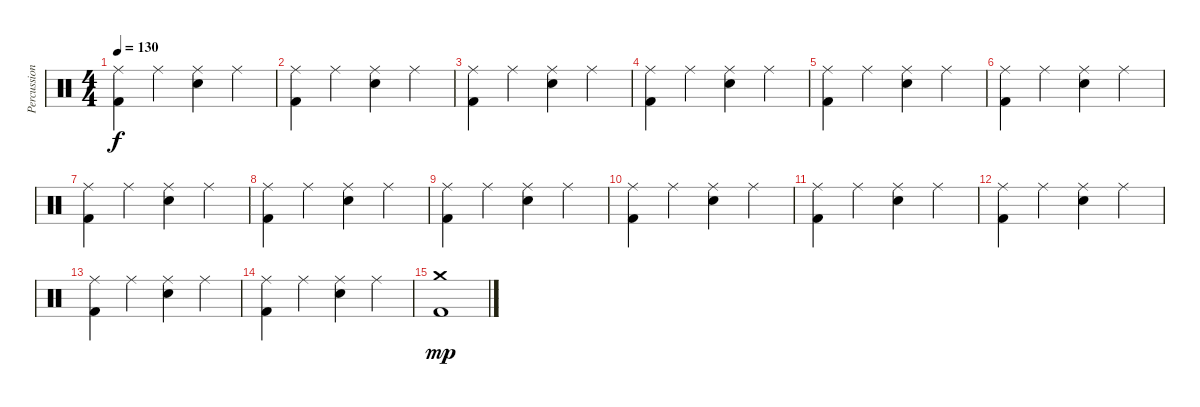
\track ("Percussion" "Percussion") {instrument percussion}
\staff {score}
\articulation defaults
\ts (4 4)
\tempo 130
\clef neutral
\ks c
("Ride (middle)" "Kick (hit) 2").4{dy f} "Ride (middle)".4 ("Ride (middle)" "Snare (hit) 2").4 "Ride (middle)".4 |
("Ride (middle)" "Kick (hit) 2").4 "Ride (middle)".4 ("Ride (middle)" "Snare (hit) 2").4 "Ride (middle)".4 |
("Ride (middle)" "Kick (hit) 2").4 "Ride (middle)".4 ("Ride (middle)" "Snare (hit) 2").4 "Ride (middle)".4 |
("Ride (middle)" "Kick (hit) 2").4 "Ride (middle)".4 ("Ride (middle)" "Snare (hit) 2").4 "Ride (middle)".4 |
("Ride (middle)" "Kick (hit) 2").4 "Ride (middle)".4 ("Ride (middle)" "Snare (hit) 2").4 "Ride (middle)".4 |
("Ride (middle)" "Kick (hit) 2").4 "Ride (middle)".4 ("Ride (middle)" "Snare (hit) 2").4 "Ride (middle)".4 |
("Ride (middle)" "Kick (hit) 2").4 "Ride (middle)".4 ("Ride (middle)" "Snare (hit) 2").4 "Ride (middle)".4 |
("Ride (middle)" "Kick (hit) 2").4 "Ride (middle)".4 ("Ride (middle)" "Snare (hit) 2").4 "Ride (middle)".4 |
("Ride (middle)" "Kick (hit) 2").4 "Ride (middle)".4 ("Ride (middle)" "Snare (hit) 2").4 "Ride (middle)".4 |
("Ride (middle)" "Kick (hit) 2").4 "Ride (middle)".4 ("Ride (middle)" "Snare (hit) 2").4 "Ride (middle)".4 |
("Ride (middle)" "Kick (hit) 2").4 "Ride (middle)".4 ("Ride (middle)" "Snare (hit) 2").4 "Ride (middle)".4 |
("Ride (middle)" "Kick (hit) 2").4 "Ride (middle)".4 ("Ride (middle)" "Snare (hit) 2").4 "Ride (middle)".4 |
("Ride (middle)" "Kick (hit) 2").4 "Ride (middle)".4 ("Ride (middle)" "Snare (hit) 2").4 "Ride (middle)".4 |
("Ride (middle)" "Kick (hit) 2").4 "Ride (middle)".4 ("Ride (middle)" "Snare (hit) 2").4 "Ride (middle)".4 |
("Crash medium (hit)" "Kick (hit) 2").1{dy mp}
